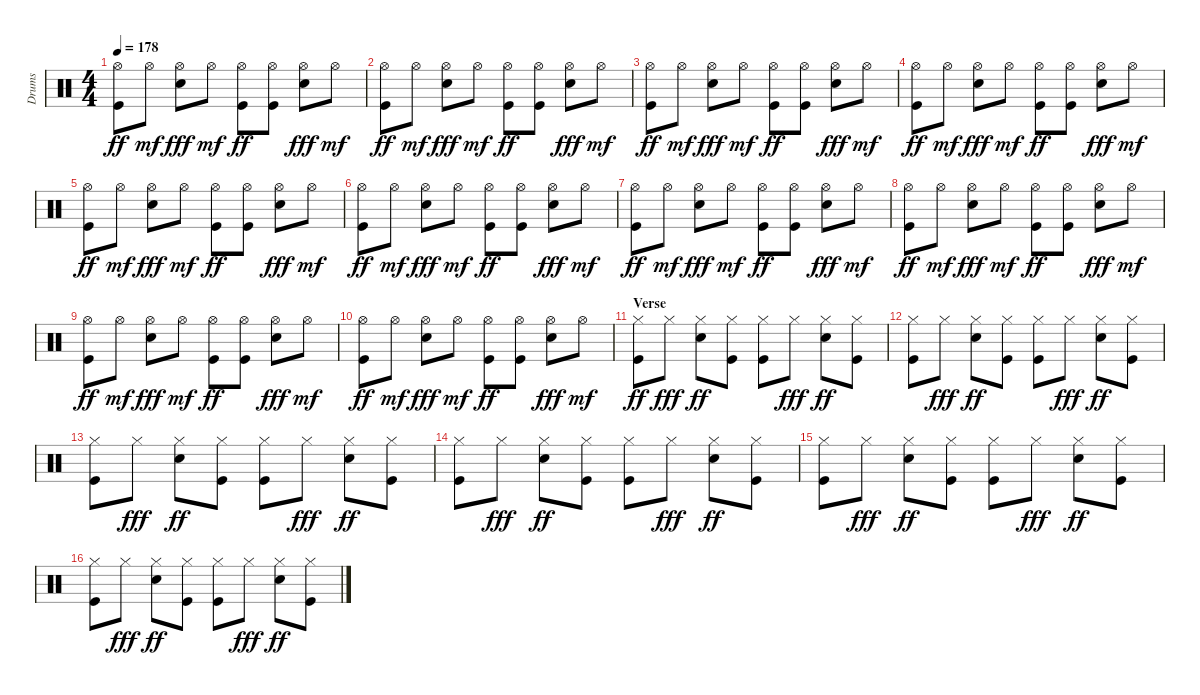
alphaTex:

\track ("Drums" "Drums") {instrument percussion}
\staff {score}
\articulation defaults
\ts (4 4)
\tempo 178
\clef neutral
\ks c
("Hi-Hat (open)" "Kick (hit)").8{dy ff} "Hi-Hat (open)".8{dy mf} ("Hi-Hat (open)" "Snare (hit) 2").8{dy fff} "Hi-Hat (open)".8{dy mf} ("Hi-Hat (open)" "Kick (hit)").8{dy ff} ("Hi-Hat (open)" "Kick (hit)").8 ("Hi-Hat (open)" "Snare (hit) 2").8{dy fff} "Hi-Hat (open)".8{dy mf} |
("Hi-Hat (open)" "Kick (hit)").8{dy ff} "Hi-Hat (open)".8{dy mf} ("Hi-Hat (open)" "Snare (hit) 2").8{dy fff} "Hi-Hat (open)".8{dy mf} ("Hi-Hat (open)" "Kick (hit)").8{dy ff} ("Hi-Hat (open)" "Kick (hit)").8 ("Hi-Hat (open)" "Snare (hit) 2").8{dy fff} "Hi-Hat (open)".8{dy mf} |
("Hi-Hat (open)" "Kick (hit)").8{dy ff} "Hi-Hat (open)".8{dy mf} ("Hi-Hat (open)" "Snare (hit) 2").8{dy fff} "Hi-Hat (open)".8{dy mf} ("Hi-Hat (open)" "Kick (hit)").8{dy ff} ("Hi-Hat (open)" "Kick (hit)").8 ("Hi-Hat (open)" "Snare (hit) 2").8{dy fff} "Hi-Hat (open)".8{dy mf} |
("Hi-Hat (open)" "Kick (hit)").8{dy ff} "Hi-Hat (open)".8{dy mf} ("Hi-Hat (open)" "Snare (hit) 2").8{dy fff} "Hi-Hat (open)".8{dy mf} ("Hi-Hat (open)" "Kick (hit)").8{dy ff} ("Hi-Hat (open)" "Kick (hit)").8 ("Hi-Hat (open)" "Snare (hit) 2").8{dy fff} "Hi-Hat (open)".8{dy mf} |
("Hi-Hat (open)" "Kick (hit)").8{dy ff} "Hi-Hat (open)".8{dy mf} ("Hi-Hat (open)" "Snare (hit) 2").8{dy fff} "Hi-Hat (open)".8{dy mf} ("Hi-Hat (open)" "Kick (hit)").8{dy ff} ("Hi-Hat (open)" "Kick (hit)").8 ("Hi-Hat (open)" "Snare (hit) 2").8{dy fff} "Hi-Hat (open)".8{dy mf} |
("Hi-Hat (open)" "Kick (hit)").8{dy ff} "Hi-Hat (open)".8{dy mf} ("Hi-Hat (open)" "Snare (hit) 2").8{dy fff} "Hi-Hat (open)".8{dy mf} ("Hi-Hat (open)" "Kick (hit)").8{dy ff} ("Hi-Hat (open)" "Kick (hit)").8 ("Hi-Hat (open)" "Snare (hit) 2").8{dy fff} "Hi-Hat (open)".8{dy mf} |
("Hi-Hat (open)" "Kick (hit)").8{dy ff} "Hi-Hat (open)".8{dy mf} ("Hi-Hat (open)" "Snare (hit) 2").8{dy fff} "Hi-Hat (open)".8{dy mf} ("Hi-Hat (open)" "Kick (hit)").8{dy ff} ("Hi-Hat (open)" "Kick (hit)").8 ("Hi-Hat (open)" "Snare (hit) 2").8{dy fff} "Hi-Hat (open)".8{dy mf} |
("Hi-Hat (open)" "Kick (hit)").8{dy ff} "Hi-Hat (open)".8{dy mf} ("Hi-Hat (open)" "Snare (hit) 2").8{dy fff} "Hi-Hat (open)".8{dy mf} ("Hi-Hat (open)" "Kick (hit)").8{dy ff} ("Hi-Hat (open)" "Kick (hit)").8 ("Hi-Hat (open)" "Snare (hit) 2").8{dy fff} "Hi-Hat (open)".8{dy mf} |
("Hi-Hat (open)" "Kick (hit)").8{dy ff} "Hi-Hat (open)".8{dy mf} ("Hi-Hat (open)" "Snare (hit) 2").8{dy fff} "Hi-Hat (open)".8{dy mf} ("Hi-Hat (open)" "Kick (hit)").8{dy ff} ("Hi-Hat (open)" "Kick (hit)").8 ("Hi-Hat (open)" "Snare (hit) 2").8{dy fff} "Hi-Hat (open)".8{dy mf} |
("Hi-Hat (open)" "Kick (hit)").8{dy ff} "Hi-Hat (open)".8{dy mf} ("Hi-Hat (open)" "Snare (hit) 2").8{dy fff} "Hi-Hat (open)".8{dy mf} ("Hi-Hat (open)" "Kick (hit)").8{dy ff} ("Hi-Hat (open)" "Kick (hit)").8 ("Hi-Hat (open)" "Snare (hit) 2").8{dy fff} "Hi-Hat (open)".8{dy mf} |
\section ("" "Verse")
("Hi-Hat (closed)" "Kick (hit)").8{dy ff} "Hi-Hat (closed)".8{dy fff} ("Hi-Hat (closed)" "Snare (hit) 2").8{dy ff} ("Hi-Hat (closed)" "Kick (hit)").8 ("Hi-Hat (closed)" "Kick (hit)").8 "Hi-Hat (closed)".8{dy fff} ("Hi-Hat (closed)" "Snare (hit) 2").8{dy ff} ("Hi-Hat (closed)" "Kick (hit)").8 |
("Hi-Hat (closed)" "Kick (hit)").8 "Hi-Hat (closed)".8{dy fff} ("Hi-Hat (closed)" "Snare (hit) 2").8{dy ff} ("Hi-Hat (closed)" "Kick (hit)").8 ("Hi-Hat (closed)" "Kick (hit)").8 "Hi-Hat (closed)".8{dy fff} ("Hi-Hat (closed)" "Snare (hit) 2").8{dy ff} ("Hi-Hat (closed)" "Kick (hit)").8 |
("Hi-Hat (closed)" "Kick (hit)").8 "Hi-Hat (closed)".8{dy fff} ("Hi-Hat (closed)" "Snare (hit) 2").8{dy ff} ("Hi-Hat (closed)" "Kick (hit)").8 ("Hi-Hat (closed)" "Kick (hit)").8 "Hi-Hat (closed)".8{dy fff} ("Hi-Hat (closed)" "Snare (hit) 2").8{dy ff} ("Hi-Hat (closed)" "Kick (hit)").8 |
("Hi-Hat (closed)" "Kick (hit)").8 "Hi-Hat (closed)".8{dy fff} ("Hi-Hat (closed)" "Snare (hit) 2").8{dy ff} ("Hi-Hat (closed)" "Kick (hit)").8 ("Hi-Hat (closed)" "Kick (hit)").8 "Hi-Hat (closed)".8{dy fff} ("Hi-Hat (closed)" "Snare (hit) 2").8{dy ff} ("Hi-Hat (closed)" "Kick (hit)").8 |
("Hi-Hat (closed)" "Kick (hit)").8 "Hi-Hat (closed)".8{dy fff} ("Hi-Hat (closed)" "Snare (hit) 2").8{dy ff} ("Hi-Hat (closed)" "Kick (hit)").8 ("Hi-Hat (closed)" "Kick (hit)").8 "Hi-Hat (closed)".8{dy fff} ("Hi-Hat (closed)" "Snare (hit) 2").8{dy ff} ("Hi-Hat (closed)" "Kick (hit)").8 |
("Hi-Hat (closed)" "Kick (hit)").8 "Hi-Hat (closed)".8{dy fff} ("Hi-Hat (closed)" "Snare (hit) 2").8{dy ff} ("Hi-Hat (closed)" "Kick (hit)").8 ("Hi-Hat (closed)" "Kick (hit)").8 "Hi-Hat (closed)".8{dy fff} ("Hi-Hat (closed)" "Snare (hit) 2").8{dy ff} ("Hi-Hat (closed)" "Kick (hit)").8
